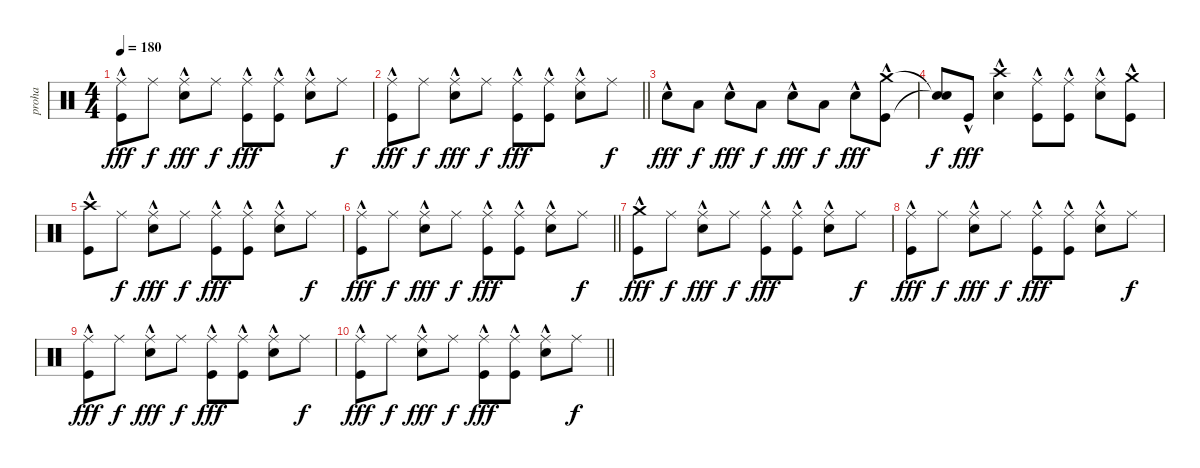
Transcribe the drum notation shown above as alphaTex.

\track ("proha" "proha") {instrument percussion}
\staff {score}
\articulation defaults
\ts (4 4)
\tempo 180
\clef neutral
\ks c
("Ride (middle)" "Kick (hit)"{hac}).8{dy fff} "Ride (middle)".8{dy f} ("Ride (middle)" "Snare (hit) 2"{hac}).8{dy fff} "Ride (middle)".8{dy f} ("Ride (middle)" "Kick (hit)"{hac}).8{dy fff} ("Ride (middle)" "Kick (hit)"{hac}).8 ("Ride (middle)" "Snare (hit) 2"{hac}).8 "Ride (middle)".8{dy f} |
\barLineRight lightlight
("Ride (middle)" "Kick (hit)"{hac}).8{dy fff} "Ride (middle)".8{dy f} ("Ride (middle)" "Snare (hit) 2"{hac}).8{dy fff} "Ride (middle)".8{dy f} ("Ride (middle)" "Kick (hit)"{hac}).8{dy fff} ("Ride (middle)" "Kick (hit)"{hac}).8 ("Ride (middle)" "Snare (hit) 2"{hac}).8 "Ride (middle)".8{dy f} |
"Snare (hit) 2"{hac}.8{dy fff} "Low Floor Tom (hit)".8{dy f} "Snare (hit) 2"{hac}.8{dy fff} "Low Floor Tom (hit)".8{dy f} "Snare (hit) 2"{hac}.8{dy fff} "Low Floor Tom (hit)".8{dy f} "Snare (hit) 2"{hac}.8{dy fff} ("Kick (hit)"{hac} "Crash medium (hit)").8 |
("Snare (hit)"{t} "Snare (hit)"{t}).8{dy f} "Kick (hit)"{hac}.8{dy fff} ("Snare (hit) 2"{hac} "Crash high (hit)").4 ("Kick (hit)"{hac} "Ride (middle)").8 ("Kick (hit)"{hac} "Ride (middle)").8 ("Snare (hit) 2"{hac} "Ride (middle)").8 ("Kick (hit)"{hac} "Crash medium (hit)").8 |
("Crash high (hit)" "Kick (hit)"{hac}).8 "Ride (middle)".8{dy f} ("Ride (middle)" "Snare (hit) 2"{hac}).8{dy fff} "Ride (middle)".8{dy f} ("Ride (middle)" "Kick (hit)"{hac}).8{dy fff} ("Ride (middle)" "Kick (hit)"{hac}).8 ("Ride (middle)" "Snare (hit) 2"{hac}).8 "Ride (middle)".8{dy f} |
\barLineRight lightlight
("Ride (middle)" "Kick (hit)"{hac}).8{dy fff} "Ride (middle)".8{dy f} ("Ride (middle)" "Snare (hit) 2"{hac}).8{dy fff} "Ride (middle)".8{dy f} ("Ride (middle)" "Kick (hit)"{hac}).8{dy fff} ("Ride (middle)" "Kick (hit)"{hac}).8 ("Ride (middle)" "Snare (hit) 2"{hac}).8 "Ride (middle)".8{dy f} |
("Crash medium (hit)" "Kick (hit)"{hac}).8{dy fff} "Ride (middle)".8{dy f} ("Ride (middle)" "Snare (hit) 2"{hac}).8{dy fff} "Ride (middle)".8{dy f} ("Ride (middle)" "Kick (hit)"{hac}).8{dy fff} ("Ride (middle)" "Kick (hit)"{hac}).8 ("Ride (middle)" "Snare (hit) 2"{hac}).8 "Ride (middle)".8{dy f} |
("Ride (middle)" "Kick (hit)"{hac}).8{dy fff} "Ride (middle)".8{dy f} ("Ride (middle)" "Snare (hit) 2"{hac}).8{dy fff} "Ride (middle)".8{dy f} ("Ride (middle)" "Kick (hit)"{hac}).8{dy fff} ("Ride (middle)" "Kick (hit)"{hac}).8 ("Ride (middle)" "Snare (hit) 2"{hac}).8 "Ride (middle)".8{dy f} |
("Ride (middle)" "Kick (hit)"{hac}).8{dy fff} "Ride (middle)".8{dy f} ("Ride (middle)" "Snare (hit) 2"{hac}).8{dy fff} "Ride (middle)".8{dy f} ("Ride (middle)" "Kick (hit)"{hac}).8{dy fff} ("Ride (middle)" "Kick (hit)"{hac}).8 ("Ride (middle)" "Snare (hit) 2"{hac}).8 "Ride (middle)".8{dy f} |
\barLineRight lightlight
("Ride (middle)" "Kick (hit)"{hac}).8{dy fff} "Ride (middle)".8{dy f} ("Ride (middle)" "Snare (hit) 2"{hac}).8{dy fff} "Ride (middle)".8{dy f} ("Ride (middle)" "Kick (hit)"{hac}).8{dy fff} ("Ride (middle)" "Kick (hit)"{hac}).8 ("Ride (middle)" "Snare (hit) 2"{hac}).8 "Ride (middle)".8{dy f}
